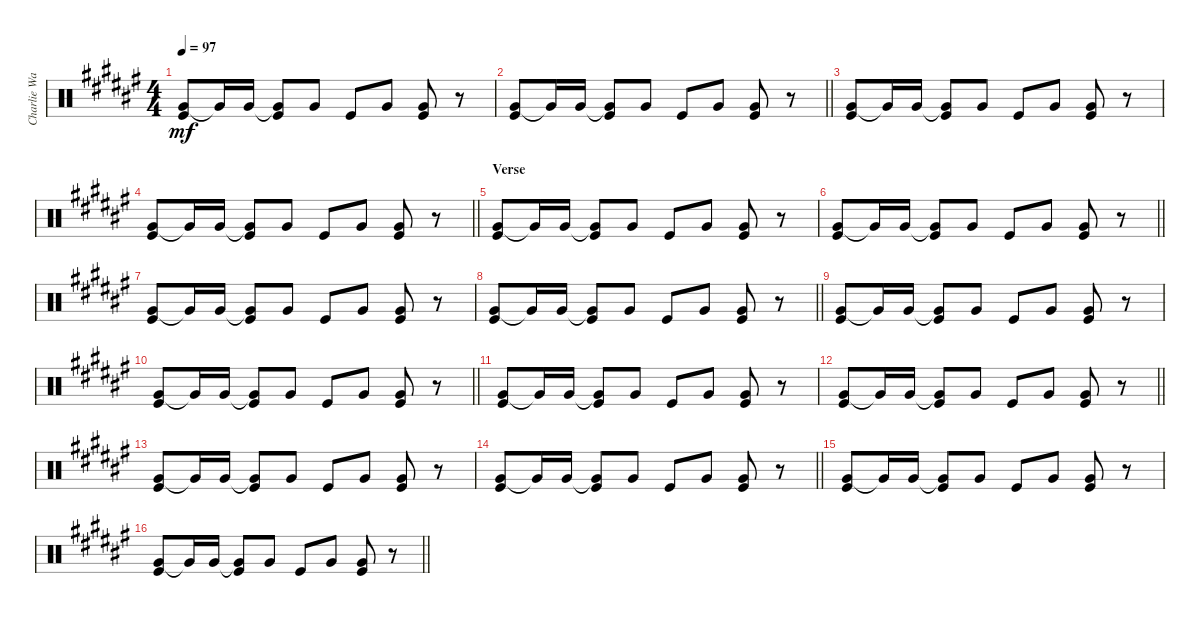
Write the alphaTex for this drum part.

\track ("Charlie Watts" "Charlie Wa") {instrument percussion}
\staff {score}
\articulation defaults
\ts (4 4)
\tempo 97
\clef neutral
\ks f#
("Very Low Tom (hit)" "Kick (hit)").8{dy mf} "Very Low Tom (hit)"{t}.16 "Very Low Tom (hit)".16 ("Very Low Tom (hit)"{t} "Kick (hit)").8 "Very Low Tom (hit)".8 "Kick (hit)".8 "Very Low Tom (hit)".8 ("Very Low Tom (hit)" "Kick (hit)").8 r.8 |
\barLineRight lightlight
("Very Low Tom (hit)" "Kick (hit)").8 "Very Low Tom (hit)"{t}.16 "Very Low Tom (hit)".16 ("Very Low Tom (hit)"{t} "Kick (hit)").8 "Very Low Tom (hit)".8 "Kick (hit)".8 "Very Low Tom (hit)".8 ("Very Low Tom (hit)" "Kick (hit)").8 r.8 |
("Very Low Tom (hit)" "Kick (hit)").8 "Very Low Tom (hit)"{t}.16 "Very Low Tom (hit)".16 ("Very Low Tom (hit)"{t} "Kick (hit)").8 "Very Low Tom (hit)".8 "Kick (hit)".8 "Very Low Tom (hit)".8 ("Very Low Tom (hit)" "Kick (hit)").8 r.8 |
\barLineRight lightlight
("Very Low Tom (hit)" "Kick (hit)").8 "Very Low Tom (hit)"{t}.16 "Very Low Tom (hit)".16 ("Very Low Tom (hit)"{t} "Kick (hit)").8 "Very Low Tom (hit)".8 "Kick (hit)".8 "Very Low Tom (hit)".8 ("Very Low Tom (hit)" "Kick (hit)").8 r.8 |
\section ("" "Verse")
("Very Low Tom (hit)" "Kick (hit)").8 "Very Low Tom (hit)"{t}.16 "Very Low Tom (hit)".16 ("Very Low Tom (hit)"{t} "Kick (hit)").8 "Very Low Tom (hit)".8 "Kick (hit)".8 "Very Low Tom (hit)".8 ("Very Low Tom (hit)" "Kick (hit)").8 r.8 |
\barLineRight lightlight
("Very Low Tom (hit)" "Kick (hit)").8 "Very Low Tom (hit)"{t}.16 "Very Low Tom (hit)".16 ("Very Low Tom (hit)"{t} "Kick (hit)").8 "Very Low Tom (hit)".8 "Kick (hit)".8 "Very Low Tom (hit)".8 ("Very Low Tom (hit)" "Kick (hit)").8 r.8 |
("Very Low Tom (hit)" "Kick (hit)").8 "Very Low Tom (hit)"{t}.16 "Very Low Tom (hit)".16 ("Very Low Tom (hit)"{t} "Kick (hit)").8 "Very Low Tom (hit)".8 "Kick (hit)".8 "Very Low Tom (hit)".8 ("Very Low Tom (hit)" "Kick (hit)").8 r.8 |
\barLineRight lightlight
("Very Low Tom (hit)" "Kick (hit)").8 "Very Low Tom (hit)"{t}.16 "Very Low Tom (hit)".16 ("Very Low Tom (hit)"{t} "Kick (hit)").8 "Very Low Tom (hit)".8 "Kick (hit)".8 "Very Low Tom (hit)".8 ("Very Low Tom (hit)" "Kick (hit)").8 r.8 |
("Very Low Tom (hit)" "Kick (hit)").8 "Very Low Tom (hit)"{t}.16 "Very Low Tom (hit)".16 ("Very Low Tom (hit)"{t} "Kick (hit)").8 "Very Low Tom (hit)".8 "Kick (hit)".8 "Very Low Tom (hit)".8 ("Very Low Tom (hit)" "Kick (hit)").8 r.8 |
\barLineRight lightlight
("Very Low Tom (hit)" "Kick (hit)").8 "Very Low Tom (hit)"{t}.16 "Very Low Tom (hit)".16 ("Very Low Tom (hit)"{t} "Kick (hit)").8 "Very Low Tom (hit)".8 "Kick (hit)".8 "Very Low Tom (hit)".8 ("Very Low Tom (hit)" "Kick (hit)").8 r.8 |
("Very Low Tom (hit)" "Kick (hit)").8 "Very Low Tom (hit)"{t}.16 "Very Low Tom (hit)".16 ("Very Low Tom (hit)"{t} "Kick (hit)").8 "Very Low Tom (hit)".8 "Kick (hit)".8 "Very Low Tom (hit)".8 ("Very Low Tom (hit)" "Kick (hit)").8 r.8 |
\barLineRight lightlight
("Very Low Tom (hit)" "Kick (hit)").8 "Very Low Tom (hit)"{t}.16 "Very Low Tom (hit)".16 ("Very Low Tom (hit)"{t} "Kick (hit)").8 "Very Low Tom (hit)".8 "Kick (hit)".8 "Very Low Tom (hit)".8 ("Very Low Tom (hit)" "Kick (hit)").8 r.8 |
("Very Low Tom (hit)" "Kick (hit)").8 "Very Low Tom (hit)"{t}.16 "Very Low Tom (hit)".16 ("Very Low Tom (hit)"{t} "Kick (hit)").8 "Very Low Tom (hit)".8 "Kick (hit)".8 "Very Low Tom (hit)".8 ("Very Low Tom (hit)" "Kick (hit)").8 r.8 |
\barLineRight lightlight
("Very Low Tom (hit)" "Kick (hit)").8 "Very Low Tom (hit)"{t}.16 "Very Low Tom (hit)".16 ("Very Low Tom (hit)"{t} "Kick (hit)").8 "Very Low Tom (hit)".8 "Kick (hit)".8 "Very Low Tom (hit)".8 ("Very Low Tom (hit)" "Kick (hit)").8 r.8 |
("Very Low Tom (hit)" "Kick (hit)").8 "Very Low Tom (hit)"{t}.16 "Very Low Tom (hit)".16 ("Very Low Tom (hit)"{t} "Kick (hit)").8 "Very Low Tom (hit)".8 "Kick (hit)".8 "Very Low Tom (hit)".8 ("Very Low Tom (hit)" "Kick (hit)").8 r.8 |
\barLineRight lightlight
("Very Low Tom (hit)" "Kick (hit)").8 "Very Low Tom (hit)"{t}.16 "Very Low Tom (hit)".16 ("Very Low Tom (hit)"{t} "Kick (hit)").8 "Very Low Tom (hit)".8 "Kick (hit)".8 "Very Low Tom (hit)".8 ("Very Low Tom (hit)" "Kick (hit)").8 r.8
